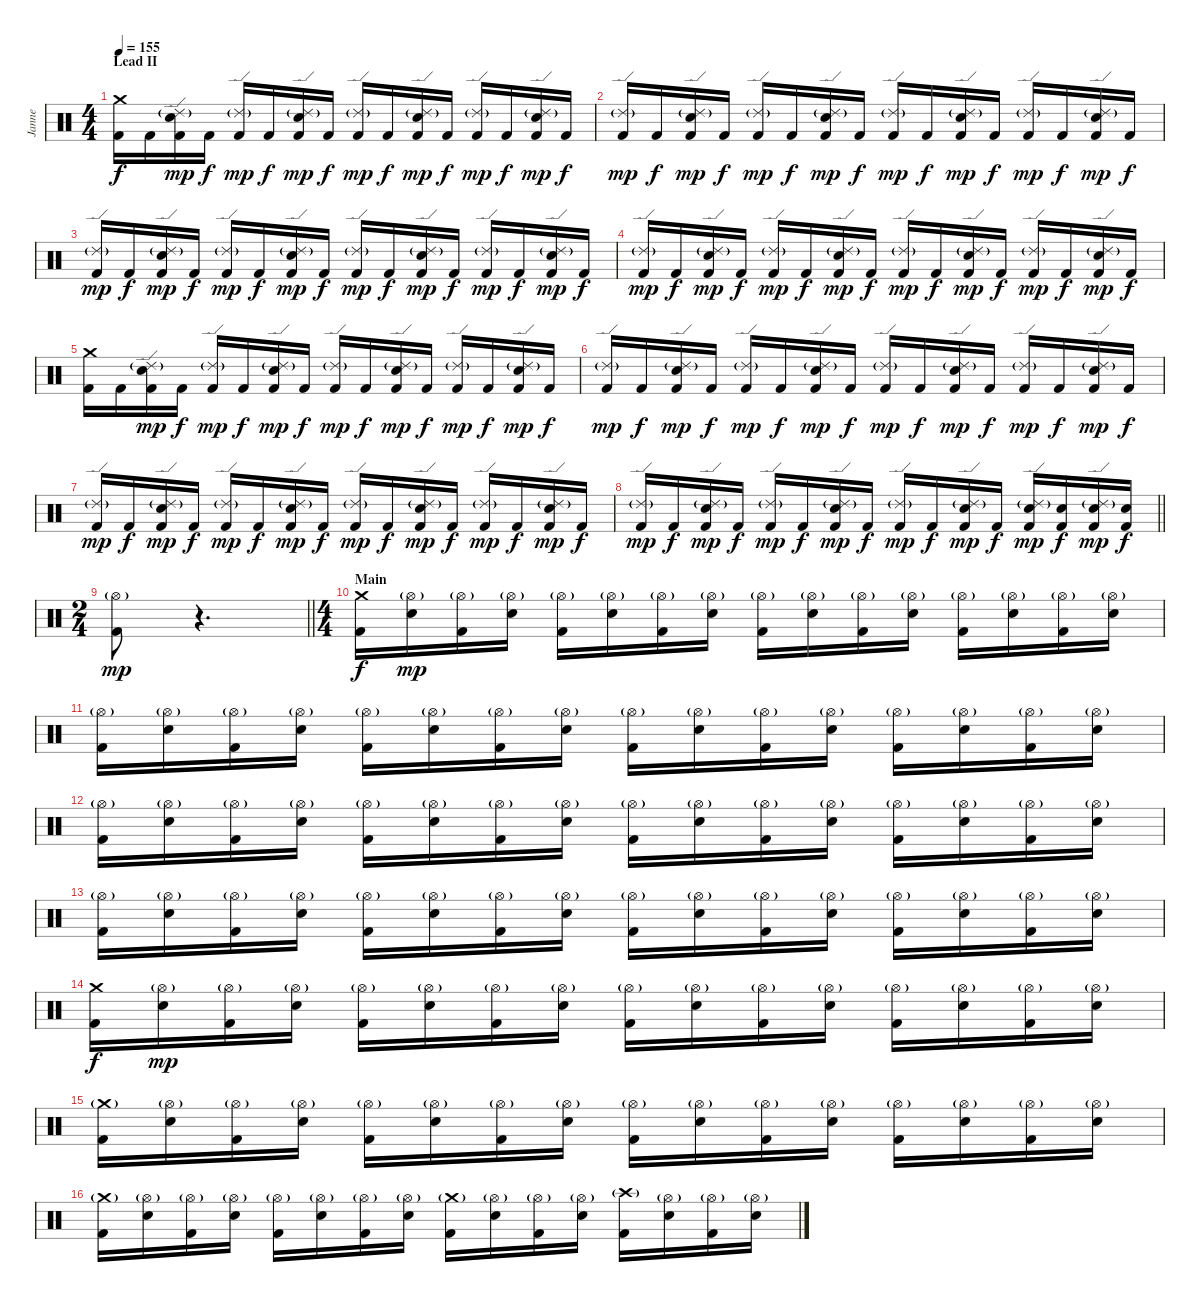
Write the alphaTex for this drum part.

\track ("Janne" "Janne") {instrument percussion}
\staff {score}
\articulation defaults
\ts (4 4)
\section ("" "Lead II")
\tempo 155
\clef neutral
\ks c
("Kick (hit) 2" "Crash medium (hit)").16{dy f} "Kick (hit) 2".16 ("Kick (hit) 2" "Snare (hit) 2" "Ride (edge) 2"{g}).16{dy mp} "Kick (hit) 2".16{dy f} ("Kick (hit) 2" "Ride (edge) 2"{g}).16{dy mp} "Kick (hit) 2".16{dy f} ("Kick (hit) 2" "Snare (hit) 2" "Ride (edge) 2"{g}).16{dy mp} "Kick (hit) 2".16{dy f} ("Kick (hit) 2" "Ride (edge) 2"{g}).16{dy mp} "Kick (hit) 2".16{dy f} ("Kick (hit) 2" "Snare (hit) 2" "Ride (edge) 2"{g}).16{dy mp} "Kick (hit) 2".16{dy f} ("Kick (hit) 2" "Ride (edge) 2"{g}).16{dy mp} "Kick (hit) 2".16{dy f} ("Kick (hit) 2" "Snare (hit) 2" "Ride (edge) 2"{g}).16{dy mp} "Kick (hit) 2".16{dy f} |
("Kick (hit) 2" "Ride (edge) 2"{g}).16{dy mp} "Kick (hit) 2".16{dy f} ("Kick (hit) 2" "Snare (hit) 2" "Ride (edge) 2"{g}).16{dy mp} "Kick (hit) 2".16{dy f} ("Kick (hit) 2" "Ride (edge) 2"{g}).16{dy mp} "Kick (hit) 2".16{dy f} ("Kick (hit) 2" "Snare (hit) 2" "Ride (edge) 2"{g}).16{dy mp} "Kick (hit) 2".16{dy f} ("Kick (hit) 2" "Ride (edge) 2"{g}).16{dy mp} "Kick (hit) 2".16{dy f} ("Kick (hit) 2" "Snare (hit) 2" "Ride (edge) 2"{g}).16{dy mp} "Kick (hit) 2".16{dy f} ("Kick (hit) 2" "Ride (edge) 2"{g}).16{dy mp} "Kick (hit) 2".16{dy f} ("Kick (hit) 2" "Snare (hit) 2" "Ride (edge) 2"{g}).16{dy mp} "Kick (hit) 2".16{dy f} |
("Kick (hit) 2" "Ride (edge) 2"{g}).16{dy mp} "Kick (hit) 2".16{dy f} ("Kick (hit) 2" "Snare (hit) 2" "Ride (edge) 2"{g}).16{dy mp} "Kick (hit) 2".16{dy f} ("Kick (hit) 2" "Ride (edge) 2"{g}).16{dy mp} "Kick (hit) 2".16{dy f} ("Kick (hit) 2" "Snare (hit) 2" "Ride (edge) 2"{g}).16{dy mp} "Kick (hit) 2".16{dy f} ("Kick (hit) 2" "Ride (edge) 2"{g}).16{dy mp} "Kick (hit) 2".16{dy f} ("Kick (hit) 2" "Snare (hit) 2" "Ride (edge) 2"{g}).16{dy mp} "Kick (hit) 2".16{dy f} ("Kick (hit) 2" "Ride (edge) 2"{g}).16{dy mp} "Kick (hit) 2".16{dy f} ("Kick (hit) 2" "Snare (hit) 2" "Ride (edge) 2"{g}).16{dy mp} "Kick (hit) 2".16{dy f} |
("Kick (hit) 2" "Ride (edge) 2"{g}).16{dy mp} "Kick (hit) 2".16{dy f} ("Kick (hit) 2" "Snare (hit) 2" "Ride (edge) 2"{g}).16{dy mp} "Kick (hit) 2".16{dy f} ("Kick (hit) 2" "Ride (edge) 2"{g}).16{dy mp} "Kick (hit) 2".16{dy f} ("Kick (hit) 2" "Snare (hit) 2" "Ride (edge) 2"{g}).16{dy mp} "Kick (hit) 2".16{dy f} ("Kick (hit) 2" "Ride (edge) 2"{g}).16{dy mp} "Kick (hit) 2".16{dy f} ("Kick (hit) 2" "Snare (hit) 2" "Ride (edge) 2"{g}).16{dy mp} "Kick (hit) 2".16{dy f} ("Kick (hit) 2" "Ride (edge) 2"{g}).16{dy mp} "Kick (hit) 2".16{dy f} ("Kick (hit) 2" "Snare (hit) 2" "Ride (edge) 2"{g}).16{dy mp} "Kick (hit) 2".16{dy f} |
("Kick (hit) 2" "Crash medium (hit)").16 "Kick (hit) 2".16 ("Kick (hit) 2" "Snare (hit) 2" "Ride (edge) 2"{g}).16{dy mp} "Kick (hit) 2".16{dy f} ("Kick (hit) 2" "Ride (edge) 2"{g}).16{dy mp} "Kick (hit) 2".16{dy f} ("Kick (hit) 2" "Snare (hit) 2" "Ride (edge) 2"{g}).16{dy mp} "Kick (hit) 2".16{dy f} ("Kick (hit) 2" "Ride (edge) 2"{g}).16{dy mp} "Kick (hit) 2".16{dy f} ("Kick (hit) 2" "Snare (hit) 2" "Ride (edge) 2"{g}).16{dy mp} "Kick (hit) 2".16{dy f} ("Kick (hit) 2" "Ride (edge) 2"{g}).16{dy mp} "Kick (hit) 2".16{dy f} ("Kick (hit) 2" "Snare (hit) 2" "Ride (edge) 2"{g}).16{dy mp} "Kick (hit) 2".16{dy f} |
("Kick (hit) 2" "Ride (edge) 2"{g}).16{dy mp} "Kick (hit) 2".16{dy f} ("Kick (hit) 2" "Snare (hit) 2" "Ride (edge) 2"{g}).16{dy mp} "Kick (hit) 2".16{dy f} ("Kick (hit) 2" "Ride (edge) 2"{g}).16{dy mp} "Kick (hit) 2".16{dy f} ("Kick (hit) 2" "Snare (hit) 2" "Ride (edge) 2"{g}).16{dy mp} "Kick (hit) 2".16{dy f} ("Kick (hit) 2" "Ride (edge) 2"{g}).16{dy mp} "Kick (hit) 2".16{dy f} ("Kick (hit) 2" "Snare (hit) 2" "Ride (edge) 2"{g}).16{dy mp} "Kick (hit) 2".16{dy f} ("Kick (hit) 2" "Ride (edge) 2"{g}).16{dy mp} "Kick (hit) 2".16{dy f} ("Kick (hit) 2" "Snare (hit) 2" "Ride (edge) 2"{g}).16{dy mp} "Kick (hit) 2".16{dy f} |
("Kick (hit) 2" "Ride (edge) 2"{g}).16{dy mp} "Kick (hit) 2".16{dy f} ("Kick (hit) 2" "Snare (hit) 2" "Ride (edge) 2"{g}).16{dy mp} "Kick (hit) 2".16{dy f} ("Kick (hit) 2" "Ride (edge) 2"{g}).16{dy mp} "Kick (hit) 2".16{dy f} ("Kick (hit) 2" "Snare (hit) 2" "Ride (edge) 2"{g}).16{dy mp} "Kick (hit) 2".16{dy f} ("Kick (hit) 2" "Ride (edge) 2"{g}).16{dy mp} "Kick (hit) 2".16{dy f} ("Kick (hit) 2" "Snare (hit) 2" "Ride (edge) 2"{g}).16{dy mp} "Kick (hit) 2".16{dy f} ("Kick (hit) 2" "Ride (edge) 2"{g}).16{dy mp} "Kick (hit) 2".16{dy f} ("Kick (hit) 2" "Snare (hit) 2" "Ride (edge) 2"{g}).16{dy mp} "Kick (hit) 2".16{dy f} |
\barLineRight lightlight
("Kick (hit) 2" "Ride (edge) 2"{g}).16{dy mp} "Kick (hit) 2".16{dy f} ("Kick (hit) 2" "Snare (hit) 2" "Ride (edge) 2"{g}).16{dy mp} "Kick (hit) 2".16{dy f} ("Kick (hit) 2" "Ride (edge) 2"{g}).16{dy mp} "Kick (hit) 2".16{dy f} ("Kick (hit) 2" "Snare (hit) 2" "Ride (edge) 2"{g}).16{dy mp} "Kick (hit) 2".16{dy f} ("Kick (hit) 2" "Ride (edge) 2"{g}).16{dy mp} "Kick (hit) 2".16{dy f} ("Kick (hit) 2" "Snare (hit) 2" "Ride (edge) 2"{g}).16{dy mp} "Kick (hit) 2".16{dy f} ("Kick (hit) 2" "Snare (hit) 2" "Ride (edge) 2"{g}).16{dy mp} ("Kick (hit) 2" "Snare (hit) 2").16{dy f} ("Kick (hit) 2" "Snare (hit) 2" "Ride (edge) 2"{g}).16{dy mp} ("Kick (hit) 2" "Snare (hit) 2").16{dy f} |
\ts (2 4)
\section ("" "")
\barLineRight lightlight
("Kick (hit) 2" "Hi-Hat (open)"{g}).8{dy mp} r.4{d} |
\ts (4 4)
\section ("" "Main")
("Kick (hit) 2" "Crash medium (hit)").16{dy f} ("Snare (hit) 2" "Hi-Hat (open)"{g}).16{dy mp} ("Kick (hit) 2" "Hi-Hat (open)"{g}).16 ("Snare (hit) 2" "Hi-Hat (open)"{g}).16 ("Kick (hit) 2" "Hi-Hat (open)"{g}).16 ("Snare (hit) 2" "Hi-Hat (open)"{g}).16 ("Kick (hit) 2" "Hi-Hat (open)"{g}).16 ("Snare (hit) 2" "Hi-Hat (open)"{g}).16 ("Kick (hit) 2" "Hi-Hat (open)"{g}).16 ("Snare (hit) 2" "Hi-Hat (open)"{g}).16 ("Kick (hit) 2" "Hi-Hat (open)"{g}).16 ("Snare (hit) 2" "Hi-Hat (open)"{g}).16 ("Kick (hit) 2" "Hi-Hat (open)"{g}).16 ("Snare (hit) 2" "Hi-Hat (open)"{g}).16 ("Kick (hit) 2" "Hi-Hat (open)"{g}).16 ("Snare (hit) 2" "Hi-Hat (open)"{g}).16 |
("Kick (hit) 2" "Hi-Hat (open)"{g}).16 ("Snare (hit) 2" "Hi-Hat (open)"{g}).16 ("Kick (hit) 2" "Hi-Hat (open)"{g}).16 ("Snare (hit) 2" "Hi-Hat (open)"{g}).16 ("Kick (hit) 2" "Hi-Hat (open)"{g}).16 ("Snare (hit) 2" "Hi-Hat (open)"{g}).16 ("Kick (hit) 2" "Hi-Hat (open)"{g}).16 ("Snare (hit) 2" "Hi-Hat (open)"{g}).16 ("Kick (hit) 2" "Hi-Hat (open)"{g}).16 ("Snare (hit) 2" "Hi-Hat (open)"{g}).16 ("Kick (hit) 2" "Hi-Hat (open)"{g}).16 ("Snare (hit) 2" "Hi-Hat (open)"{g}).16 ("Kick (hit) 2" "Hi-Hat (open)"{g}).16 ("Snare (hit) 2" "Hi-Hat (open)"{g}).16 ("Kick (hit) 2" "Hi-Hat (open)"{g}).16 ("Snare (hit) 2" "Hi-Hat (open)"{g}).16 |
("Kick (hit) 2" "Hi-Hat (open)"{g}).16 ("Snare (hit) 2" "Hi-Hat (open)"{g}).16 ("Kick (hit) 2" "Hi-Hat (open)"{g}).16 ("Snare (hit) 2" "Hi-Hat (open)"{g}).16 ("Kick (hit) 2" "Hi-Hat (open)"{g}).16 ("Snare (hit) 2" "Hi-Hat (open)"{g}).16 ("Kick (hit) 2" "Hi-Hat (open)"{g}).16 ("Snare (hit) 2" "Hi-Hat (open)"{g}).16 ("Kick (hit) 2" "Hi-Hat (open)"{g}).16 ("Snare (hit) 2" "Hi-Hat (open)"{g}).16 ("Kick (hit) 2" "Hi-Hat (open)"{g}).16 ("Snare (hit) 2" "Hi-Hat (open)"{g}).16 ("Kick (hit) 2" "Hi-Hat (open)"{g}).16 ("Snare (hit) 2" "Hi-Hat (open)"{g}).16 ("Kick (hit) 2" "Hi-Hat (open)"{g}).16 ("Snare (hit) 2" "Hi-Hat (open)"{g}).16 |
("Kick (hit) 2" "Hi-Hat (open)"{g}).16 ("Snare (hit) 2" "Hi-Hat (open)"{g}).16 ("Kick (hit) 2" "Hi-Hat (open)"{g}).16 ("Snare (hit) 2" "Hi-Hat (open)"{g}).16 ("Kick (hit) 2" "Hi-Hat (open)"{g}).16 ("Snare (hit) 2" "Hi-Hat (open)"{g}).16 ("Kick (hit) 2" "Hi-Hat (open)"{g}).16 ("Snare (hit) 2" "Hi-Hat (open)"{g}).16 ("Kick (hit) 2" "Hi-Hat (open)"{g}).16 ("Snare (hit) 2" "Hi-Hat (open)"{g}).16 ("Kick (hit) 2" "Hi-Hat (open)"{g}).16 ("Snare (hit) 2" "Hi-Hat (open)"{g}).16 ("Kick (hit) 2" "Hi-Hat (open)"{g}).16 ("Snare (hit) 2" "Hi-Hat (open)"{g}).16 ("Kick (hit) 2" "Hi-Hat (open)"{g}).16 ("Snare (hit) 2" "Hi-Hat (open)"{g}).16 |
("Kick (hit) 2" "Crash medium (hit)").16{dy f} ("Snare (hit) 2" "Hi-Hat (open)"{g}).16{dy mp} ("Kick (hit) 2" "Hi-Hat (open)"{g}).16 ("Snare (hit) 2" "Hi-Hat (open)"{g}).16 ("Kick (hit) 2" "Hi-Hat (open)"{g}).16 ("Snare (hit) 2" "Hi-Hat (open)"{g}).16 ("Kick (hit) 2" "Hi-Hat (open)"{g}).16 ("Snare (hit) 2" "Hi-Hat (open)"{g}).16 ("Kick (hit) 2" "Hi-Hat (open)"{g}).16 ("Snare (hit) 2" "Hi-Hat (open)"{g}).16 ("Kick (hit) 2" "Hi-Hat (open)"{g}).16 ("Snare (hit) 2" "Hi-Hat (open)"{g}).16 ("Kick (hit) 2" "Hi-Hat (open)"{g}).16 ("Snare (hit) 2" "Hi-Hat (open)"{g}).16 ("Kick (hit) 2" "Hi-Hat (open)"{g}).16 ("Snare (hit) 2" "Hi-Hat (open)"{g}).16 |
("Kick (hit) 2" "Crash medium (hit)"{g}).16 ("Snare (hit) 2" "Hi-Hat (open)"{g}).16 ("Kick (hit) 2" "Hi-Hat (open)"{g}).16 ("Snare (hit) 2" "Hi-Hat (open)"{g}).16 ("Kick (hit) 2" "Hi-Hat (open)"{g}).16 ("Snare (hit) 2" "Hi-Hat (open)"{g}).16 ("Kick (hit) 2" "Hi-Hat (open)"{g}).16 ("Snare (hit) 2" "Hi-Hat (open)"{g}).16 ("Kick (hit) 2" "Hi-Hat (open)"{g}).16 ("Snare (hit) 2" "Hi-Hat (open)"{g}).16 ("Kick (hit) 2" "Hi-Hat (open)"{g}).16 ("Snare (hit) 2" "Hi-Hat (open)"{g}).16 ("Kick (hit) 2" "Hi-Hat (open)"{g}).16 ("Snare (hit) 2" "Hi-Hat (open)"{g}).16 ("Kick (hit) 2" "Hi-Hat (open)"{g}).16 ("Snare (hit) 2" "Hi-Hat (open)"{g}).16 |
("Kick (hit) 2" "Crash medium (hit)"{g}).16 ("Snare (hit) 2" "Hi-Hat (open)"{g}).16 ("Kick (hit) 2" "Hi-Hat (open)"{g}).16 ("Snare (hit) 2" "Hi-Hat (open)"{g}).16 ("Kick (hit) 2" "Hi-Hat (open)"{g}).16 ("Snare (hit) 2" "Hi-Hat (open)"{g}).16 ("Kick (hit) 2" "Hi-Hat (open)"{g}).16 ("Snare (hit) 2" "Hi-Hat (open)"{g}).16 ("Kick (hit) 2" "Crash medium (hit)"{g}).16 ("Snare (hit) 2" "Hi-Hat (open)"{g}).16 ("Kick (hit) 2" "Hi-Hat (open)"{g}).16 ("Snare (hit) 2" "Hi-Hat (open)"{g}).16 ("Kick (hit) 2" "Crash high (hit)"{g}).16 ("Snare (hit) 2" "Hi-Hat (open)"{g}).16 ("Kick (hit) 2" "Hi-Hat (open)"{g}).16 ("Snare (hit) 2" "Hi-Hat (open)"{g}).16
